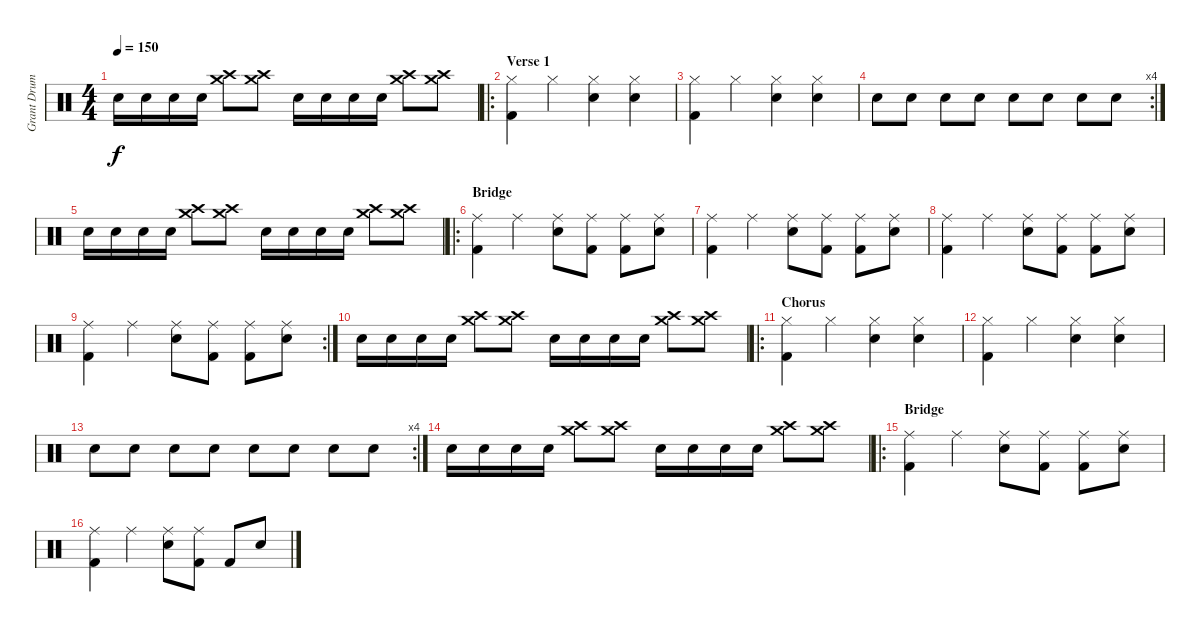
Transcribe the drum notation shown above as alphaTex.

\track ("Grant Drums" "Grant Drum") {instrument percussion}
\staff {score}
\articulation defaults
\ts (4 4)
\tempo 150
\clef neutral
\ks c "Snare (hit) 2".16{dy f} "Snare (hit) 2".16 "Snare (hit) 2".16 "Snare (hit) 2".16
("Crash medium (hit)" "Crash high (hit)").8 ("Crash medium (hit)" "Crash high (hit)").8 "Snare (hit) 2".16 "Snare (hit) 2".16 "Snare (hit) 2".16 "Snare (hit) 2".16 ("Crash medium (hit)" "Crash high (hit)").8 ("Crash medium (hit)" "Crash high (hit)").8 |
\ro
\section ("" "Verse 1")
("Hi-Hat (closed)" "Kick (hit) 2").4 "Hi-Hat (closed)".4 ("Hi-Hat (closed)" "Snare (hit) 2").4 ("Hi-Hat (closed)" "Snare (hit) 2").4 |
("Hi-Hat (closed)" "Kick (hit) 2").4 "Hi-Hat (closed)".4 ("Hi-Hat (closed)" "Snare (hit) 2").4 ("Hi-Hat (closed)" "Snare (hit) 2").4 |
\rc 4 "Snare (hit) 2".8 "Snare (hit) 2".8 "Snare (hit) 2".8 "Snare (hit) 2".8 "Snare (hit) 2".8 "Snare (hit) 2".8 "Snare (hit) 2".8 "Snare (hit) 2".8
|
"Snare (hit) 2".16 "Snare (hit) 2".16 "Snare (hit) 2".16 "Snare (hit) 2".16 ("Crash medium (hit)" "Crash high (hit)").8 ("Crash medium (hit)" "Crash high (hit)").8 "Snare (hit) 2".16 "Snare (hit) 2".16 "Snare (hit) 2".16 "Snare (hit) 2".16 ("Crash medium (hit)" "Crash high (hit)").8 ("Crash medium (hit)" "Crash high (hit)").8 |
\ro
\section ("" "Bridge")
("Ride (middle)" "Kick (hit) 2").4 "Ride (middle)".4 ("Ride (middle)" "Snare (hit) 2").8 ("Ride (middle)" "Kick (hit) 2").8 ("Ride (middle)" "Kick (hit) 2").8 ("Ride (middle)" "Snare (hit) 2").8 |
("Ride (middle)" "Kick (hit) 2").4 "Ride (middle)".4 ("Ride (middle)" "Snare (hit) 2").8 ("Ride (middle)" "Kick (hit) 2").8 ("Ride (middle)" "Kick (hit) 2").8 ("Ride (middle)" "Snare (hit) 2").8 |
("Ride (middle)" "Kick (hit) 2").4 "Ride (middle)".4 ("Ride (middle)" "Snare (hit) 2").8 ("Ride (middle)" "Kick (hit) 2").8 ("Ride (middle)" "Kick (hit) 2").8 ("Ride (middle)" "Snare (hit) 2").8 |
\rc 2
("Ride (middle)" "Kick (hit) 2").4 "Ride (middle)".4 ("Ride (middle)" "Snare (hit) 2").8 ("Ride (middle)" "Kick (hit) 2").8 ("Ride (middle)" "Kick (hit) 2").8 ("Ride (middle)" "Snare (hit) 2").8 |
"Snare (hit) 2".16 "Snare (hit) 2".16 "Snare (hit) 2".16 "Snare (hit) 2".16 ("Crash medium (hit)" "Crash high (hit)").8 ("Crash medium (hit)" "Crash high (hit)").8 "Snare (hit) 2".16 "Snare (hit) 2".16 "Snare (hit) 2".16 "Snare (hit) 2".16 ("Crash medium (hit)" "Crash high (hit)").8 ("Crash medium (hit)" "Crash high (hit)").8 |
\ro
\section ("" "Chorus")
("Hi-Hat (closed)" "Kick (hit) 2").4 "Hi-Hat (closed)".4 ("Hi-Hat (closed)" "Snare (hit) 2").4 ("Hi-Hat (closed)" "Snare (hit) 2").4 |
("Hi-Hat (closed)" "Kick (hit) 2").4 "Hi-Hat (closed)".4 ("Hi-Hat (closed)" "Snare (hit) 2").4 ("Hi-Hat (closed)" "Snare (hit) 2").4 |
\rc 4 "Snare (hit) 2".8 "Snare (hit) 2".8 "Snare (hit) 2".8 "Snare (hit) 2".8 "Snare (hit) 2".8 "Snare (hit) 2".8 "Snare (hit) 2".8 "Snare (hit) 2".8
|
"Snare (hit) 2".16 "Snare (hit) 2".16 "Snare (hit) 2".16 "Snare (hit) 2".16 ("Crash medium (hit)" "Crash high (hit)").8 ("Crash medium (hit)" "Crash high (hit)").8 "Snare (hit) 2".16 "Snare (hit) 2".16 "Snare (hit) 2".16 "Snare (hit) 2".16 ("Crash medium (hit)" "Crash high (hit)").8 ("Crash medium (hit)" "Crash high (hit)").8 |
\ro
\section ("" "Bridge")
("Ride (middle)" "Kick (hit) 2").4 "Ride (middle)".4 ("Ride (middle)" "Snare (hit) 2").8 ("Ride (middle)" "Kick (hit) 2").8 ("Ride (middle)" "Kick (hit) 2").8 ("Ride (middle)" "Snare (hit) 2").8 |
("Ride (middle)" "Kick (hit) 2").4 "Ride (middle)".4 ("Ride (middle)" "Snare (hit) 2").8 ("Ride (middle)" "Kick (hit) 2").8 "Kick (hit) 2".8 "Snare (hit) 2".8
